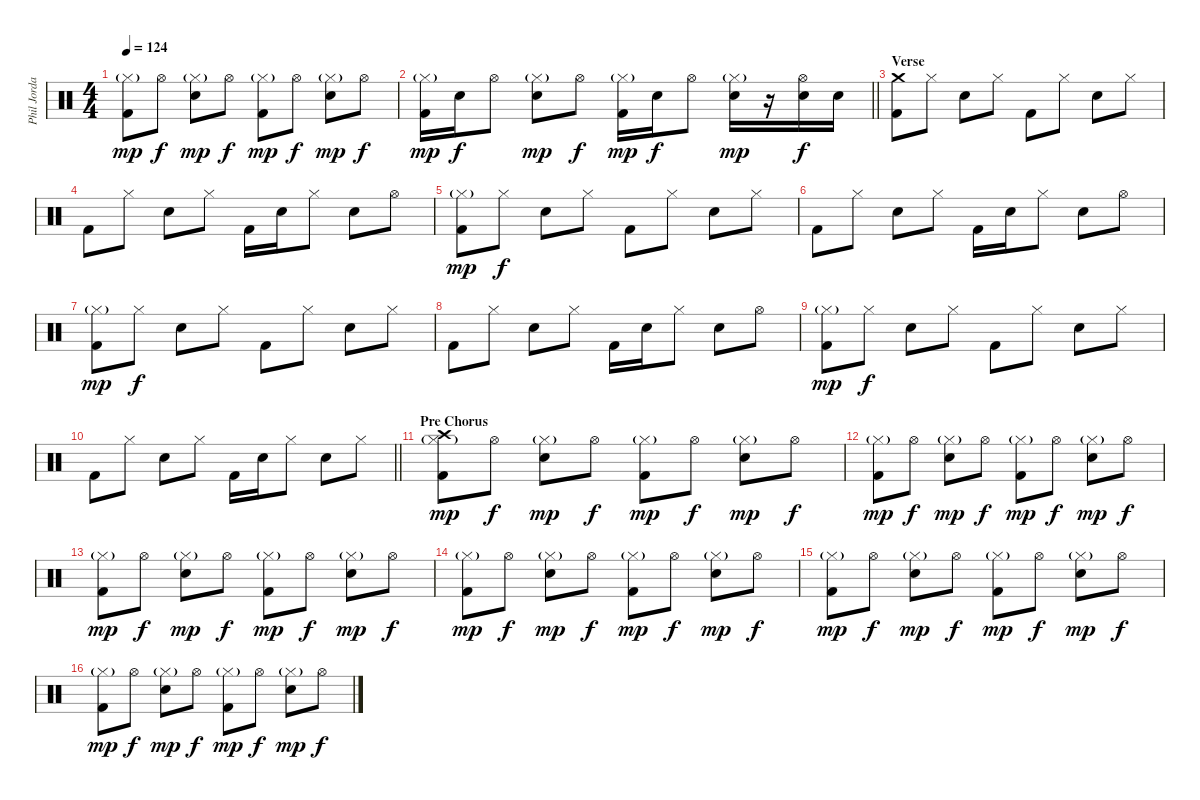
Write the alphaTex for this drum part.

\track ("Phil Jordan (Drums)" "Phil Jorda") {instrument percussion}
\staff {score}
\articulation defaults
\ts (4 4)
\tempo 124
\clef neutral
\ks c
("Hi-Hat (closed)"{g} "Kick (hit) 2").8{dy mp} "Hi-Hat (open)".8{dy f} ("Hi-Hat (closed)"{g} "Electric Snare (hit)").8{dy mp} "Hi-Hat (open)".8{dy f} ("Hi-Hat (closed)"{g} "Kick (hit) 2").8{dy mp} "Hi-Hat (open)".8{dy f} ("Hi-Hat (closed)"{g} "Electric Snare (hit)").8{dy mp} "Hi-Hat (open)".8{dy f} |
\barLineRight lightlight
("Hi-Hat (closed)"{g} "Kick (hit) 2").16{dy mp} "Electric Snare (hit)".16{dy f} "Hi-Hat (open)".8 ("Hi-Hat (closed)"{g} "Electric Snare (hit)").8{dy mp} "Hi-Hat (open)".8{dy f} ("Hi-Hat (closed)"{g} "Kick (hit) 2").16{dy mp} "Electric Snare (hit)".16{dy f} "Hi-Hat (open)".8 ("Hi-Hat (closed)"{g} "Electric Snare (hit)").16{dy mp} r.16 ("Hi-Hat (open)" "Electric Snare (hit)").16{dy f} "Electric Snare (hit)".16 |
\section ("" "Verse")
("Crash medium (hit)" "Kick (hit) 2").8 "Hi-Hat (closed)".8 "Electric Snare (hit)".8 "Hi-Hat (closed)".8 "Kick (hit) 2".8 "Hi-Hat (closed)".8 "Electric Snare (hit)".8 "Hi-Hat (closed)".8 |
"Kick (hit) 2".8 "Hi-Hat (closed)".8 "Electric Snare (hit)".8 "Hi-Hat (closed)".8 "Kick (hit) 2".16 "Electric Snare (hit)".16 "Hi-Hat (closed)".8 "Electric Snare (hit)".8 "Hi-Hat (open)".8 |
("Hi-Hat (closed)"{g} "Kick (hit) 2").8{dy mp} "Hi-Hat (closed)".8{dy f} "Electric Snare (hit)".8 "Hi-Hat (closed)".8 "Kick (hit) 2".8 "Hi-Hat (closed)".8 "Electric Snare (hit)".8 "Hi-Hat (closed)".8 |
"Kick (hit) 2".8 "Hi-Hat (closed)".8 "Electric Snare (hit)".8 "Hi-Hat (closed)".8 "Kick (hit) 2".16 "Electric Snare (hit)".16 "Hi-Hat (closed)".8 "Electric Snare (hit)".8 "Hi-Hat (open)".8 |
("Hi-Hat (closed)"{g} "Kick (hit) 2").8{dy mp} "Hi-Hat (closed)".8{dy f} "Electric Snare (hit)".8 "Hi-Hat (closed)".8 "Kick (hit) 2".8 "Hi-Hat (closed)".8 "Electric Snare (hit)".8 "Hi-Hat (closed)".8 |
"Kick (hit) 2".8 "Hi-Hat (closed)".8 "Electric Snare (hit)".8 "Hi-Hat (closed)".8 "Kick (hit) 2".16 "Electric Snare (hit)".16 "Hi-Hat (closed)".8 "Electric Snare (hit)".8 "Hi-Hat (open)".8 |
("Hi-Hat (closed)"{g} "Kick (hit) 2").8{dy mp} "Hi-Hat (closed)".8{dy f} "Electric Snare (hit)".8 "Hi-Hat (closed)".8 "Kick (hit) 2".8 "Hi-Hat (closed)".8 "Electric Snare (hit)".8 "Hi-Hat (closed)".8 |
\barLineRight lightlight "Kick (hit) 2".8 "Hi-Hat (closed)".8 "Electric Snare (hit)".8 "Hi-Hat (closed)".8 "Kick (hit) 2".16 "Electric Snare (hit)".16 "Hi-Hat (closed)".8 "Electric Snare (hit)".8 "Hi-Hat (closed)".8
|
\section ("" "Pre Chorus")
("Crash high (hit)" "Hi-Hat (closed)"{g} "Kick (hit) 2").8{dy mp} "Hi-Hat (open)".8{dy f} ("Hi-Hat (closed)"{g} "Electric Snare (hit)").8{dy mp} "Hi-Hat (open)".8{dy f} ("Hi-Hat (closed)"{g} "Kick (hit) 2").8{dy mp} "Hi-Hat (open)".8{dy f} ("Hi-Hat (closed)"{g} "Electric Snare (hit)").8{dy mp} "Hi-Hat (open)".8{dy f} |
("Hi-Hat (closed)"{g} "Kick (hit) 2").8{dy mp} "Hi-Hat (open)".8{dy f} ("Hi-Hat (closed)"{g} "Electric Snare (hit)").8{dy mp} "Hi-Hat (open)".8{dy f} ("Hi-Hat (closed)"{g} "Kick (hit) 2").8{dy mp} "Hi-Hat (open)".8{dy f} ("Hi-Hat (closed)"{g} "Electric Snare (hit)").8{dy mp} "Hi-Hat (open)".8{dy f} |
("Hi-Hat (closed)"{g} "Kick (hit) 2").8{dy mp} "Hi-Hat (open)".8{dy f} ("Hi-Hat (closed)"{g} "Electric Snare (hit)").8{dy mp} "Hi-Hat (open)".8{dy f} ("Hi-Hat (closed)"{g} "Kick (hit) 2").8{dy mp} "Hi-Hat (open)".8{dy f} ("Hi-Hat (closed)"{g} "Electric Snare (hit)").8{dy mp} "Hi-Hat (open)".8{dy f} |
("Hi-Hat (closed)"{g} "Kick (hit) 2").8{dy mp} "Hi-Hat (open)".8{dy f} ("Hi-Hat (closed)"{g} "Electric Snare (hit)").8{dy mp} "Hi-Hat (open)".8{dy f} ("Hi-Hat (closed)"{g} "Kick (hit) 2").8{dy mp} "Hi-Hat (open)".8{dy f} ("Hi-Hat (closed)"{g} "Electric Snare (hit)").8{dy mp} "Hi-Hat (open)".8{dy f} |
("Hi-Hat (closed)"{g} "Kick (hit) 2").8{dy mp} "Hi-Hat (open)".8{dy f} ("Hi-Hat (closed)"{g} "Electric Snare (hit)").8{dy mp} "Hi-Hat (open)".8{dy f} ("Hi-Hat (closed)"{g} "Kick (hit) 2").8{dy mp} "Hi-Hat (open)".8{dy f} ("Hi-Hat (closed)"{g} "Electric Snare (hit)").8{dy mp} "Hi-Hat (open)".8{dy f} |
("Hi-Hat (closed)"{g} "Kick (hit) 2").8{dy mp} "Hi-Hat (open)".8{dy f} ("Hi-Hat (closed)"{g} "Electric Snare (hit)").8{dy mp} "Hi-Hat (open)".8{dy f} ("Hi-Hat (closed)"{g} "Kick (hit) 2").8{dy mp} "Hi-Hat (open)".8{dy f} ("Hi-Hat (closed)"{g} "Electric Snare (hit)").8{dy mp} "Hi-Hat (open)".8{dy f}
